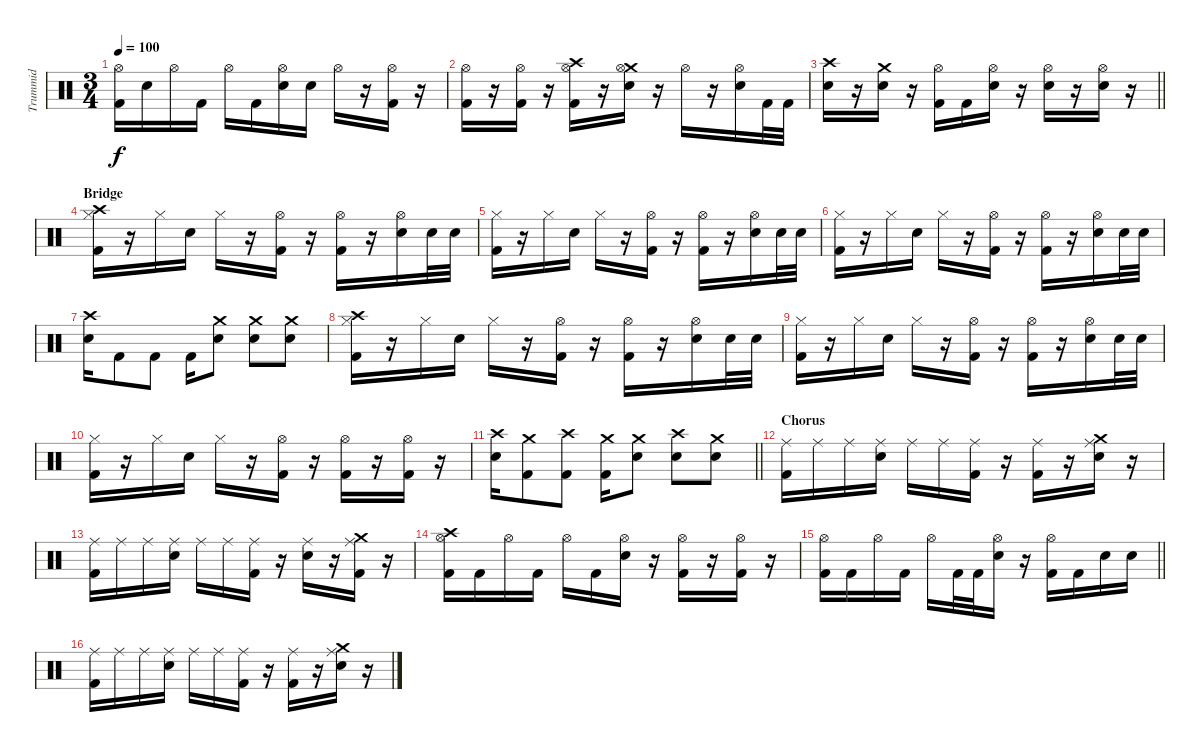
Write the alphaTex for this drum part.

\track ("Trummid" "Trummid") {instrument percussion}
\staff {score}
\articulation defaults
\ts (3 4)
\tempo 100
\clef neutral
\ks c
("Hi-Hat (open)" "Kick (hit) 2").16{dy f} "Snare (hit) 2".16 "Hi-Hat (open)".16 "Kick (hit) 2".16 "Hi-Hat (open)".16 "Kick (hit) 2".16 ("Hi-Hat (open)" "Snare (hit) 2").16 "Snare (hit) 2".16 "Hi-Hat (open)".16 r.16 ("Hi-Hat (open)" "Kick (hit) 2").16 r.16 |
("Hi-Hat (open)" "Kick (hit) 2").16 r.16 ("Hi-Hat (open)" "Kick (hit) 2").16 r.16 ("Crash high (hit)" "Hi-Hat (open)" "Kick (hit) 2").16 r.16 ("Crash medium (hit)" "Hi-Hat (open)" "Snare (hit) 2").16 r.16 "Hi-Hat (open)".16 r.16 ("Hi-Hat (open)" "Snare (hit) 2").16 "Kick (hit) 2".32 "Kick (hit) 2".32 |
\barLineRight lightlight
("Crash high (hit)" "Snare (hit) 2").16 r.16 ("Crash medium (hit)" "Snare (hit) 2").16 r.16 ("Hi-Hat (open)" "Kick (hit) 2").16 "Kick (hit) 2".16 ("Hi-Hat (open)" "Snare (hit) 2").16 r.16 ("Hi-Hat (open)" "Snare (hit) 2").16 r.16 ("Hi-Hat (open)" "Snare (hit) 2").16 r.16 |
\section ("" "Bridge")
("Crash high (hit)" "Hi-Hat (closed)" "Kick (hit) 2").16 r.16 "Hi-Hat (closed)".16 "Snare (hit) 2".16 "Hi-Hat (closed)".16 r.16 ("Hi-Hat (open)" "Kick (hit) 2").16 r.16 ("Hi-Hat (open)" "Kick (hit) 2").16 r.16 ("Hi-Hat (open)" "Snare (hit) 2").16 "Snare (hit) 2".32 "Snare (hit) 2".32 |
("Hi-Hat (closed)" "Kick (hit) 2").16 r.16 "Hi-Hat (closed)".16 "Snare (hit) 2".16 "Hi-Hat (closed)".16 r.16 ("Hi-Hat (open)" "Kick (hit) 2").16 r.16 ("Hi-Hat (open)" "Kick (hit) 2").16 r.16 ("Hi-Hat (open)" "Snare (hit) 2").16 "Snare (hit) 2".32 "Snare (hit) 2".32 |
("Hi-Hat (closed)" "Kick (hit) 2").16 r.16 "Hi-Hat (closed)".16 "Snare (hit) 2".16 "Hi-Hat (closed)".16 r.16 ("Hi-Hat (open)" "Kick (hit) 2").16 r.16 ("Hi-Hat (open)" "Kick (hit) 2").16 r.16 ("Hi-Hat (open)" "Snare (hit) 2").16 "Snare (hit) 2".32 "Snare (hit) 2".32 |
("Crash high (hit)" "Snare (hit) 2").16 "Kick (hit) 2".8 "Kick (hit) 2".8 "Kick (hit) 2".16 ("Crash medium (hit)" "Snare (hit) 2").8 ("Crash medium (hit)" "Snare (hit) 2").8 ("Crash medium (hit)" "Snare (hit) 2").8 |
("Crash high (hit)" "Hi-Hat (closed)" "Kick (hit) 2").16 r.16 "Hi-Hat (closed)".16 "Snare (hit) 2".16 "Hi-Hat (closed)".16 r.16 ("Hi-Hat (open)" "Kick (hit) 2").16 r.16 ("Hi-Hat (open)" "Kick (hit) 2").16 r.16 ("Hi-Hat (open)" "Snare (hit) 2").16 "Snare (hit) 2".32 "Snare (hit) 2".32 |
("Hi-Hat (closed)" "Kick (hit) 2").16 r.16 "Hi-Hat (closed)".16 "Snare (hit) 2".16 "Hi-Hat (closed)".16 r.16 ("Hi-Hat (open)" "Kick (hit) 2").16 r.16 ("Hi-Hat (open)" "Kick (hit) 2").16 r.16 ("Hi-Hat (open)" "Snare (hit) 2").16 "Snare (hit) 2".32 "Snare (hit) 2".32 |
("Hi-Hat (closed)" "Kick (hit) 2").16 r.16 "Hi-Hat (closed)".16 "Snare (hit) 2".16 "Hi-Hat (closed)".16 r.16 ("Hi-Hat (open)" "Kick (hit) 2").16 r.16 ("Hi-Hat (open)" "Kick (hit) 2").16 r.16 ("Hi-Hat (open)" "Kick (hit) 2").16 r.16 |
\barLineRight lightlight
("Crash high (hit)" "Snare (hit) 2").16 ("Crash medium (hit)" "Kick (hit) 2").8 ("Crash high (hit)" "Kick (hit) 2").8 ("Crash medium (hit)" "Kick (hit) 2").16 ("Crash medium (hit)" "Snare (hit) 2").8 ("Crash high (hit)" "Snare (hit) 2").8 ("Crash medium (hit)" "Snare (hit) 2").8 |
\section ("" "Chorus")
("Ride (middle)" "Kick (hit) 2").16 "Ride (middle)".16 "Ride (middle)".16 ("Ride (middle)" "Snare (hit) 2").16 "Ride (middle)".16 "Ride (middle)".16 ("Ride (middle)" "Kick (hit) 2").16 r.16 ("Ride (middle)" "Kick (hit) 2").16 r.16 ("Crash medium (hit)" "Ride (middle)" "Snare (hit) 2").16 r.16 |
("Ride (middle)" "Kick (hit) 2").16 "Ride (middle)".16 "Ride (middle)".16 ("Ride (middle)" "Snare (hit) 2").16 "Ride (middle)".16 "Ride (middle)".16 ("Ride (middle)" "Kick (hit) 2").16 r.16 ("Ride (middle)" "Snare (hit) 2").16 r.16 ("Crash medium (hit)" "Ride (middle)" "Kick (hit) 2").16 r.16 |
("Crash high (hit)" "Hi-Hat (open)" "Kick (hit) 2").16 "Kick (hit) 2".16 "Hi-Hat (open)".16 "Kick (hit) 2".16 "Hi-Hat (open)".16 "Kick (hit) 2".16 ("Hi-Hat (open)" "Snare (hit) 2").16 r.16 ("Hi-Hat (open)" "Kick (hit) 2").16 r.16 ("Hi-Hat (open)" "Kick (hit) 2").16 r.16 |
\barLineRight lightlight
("Hi-Hat (open)" "Kick (hit) 2").16 "Kick (hit) 2".16 "Hi-Hat (open)".16 "Kick (hit) 2".16 "Hi-Hat (open)".16 "Kick (hit) 2".32 "Kick (hit) 2".32 ("Hi-Hat (open)" "Snare (hit) 2").16 r.16 ("Hi-Hat (open)" "Kick (hit) 2").16 "Kick (hit) 2".16 "Snare (hit) 2".16 "Snare (hit) 2".16 |
("Ride (middle)" "Kick (hit) 2").16 "Ride (middle)".16 "Ride (middle)".16 ("Ride (middle)" "Snare (hit) 2").16 "Ride (middle)".16 "Ride (middle)".16 ("Ride (middle)" "Kick (hit) 2").16 r.16 ("Ride (middle)" "Kick (hit) 2").16 r.16 ("Crash medium (hit)" "Ride (middle)" "Snare (hit) 2").16 r.16
